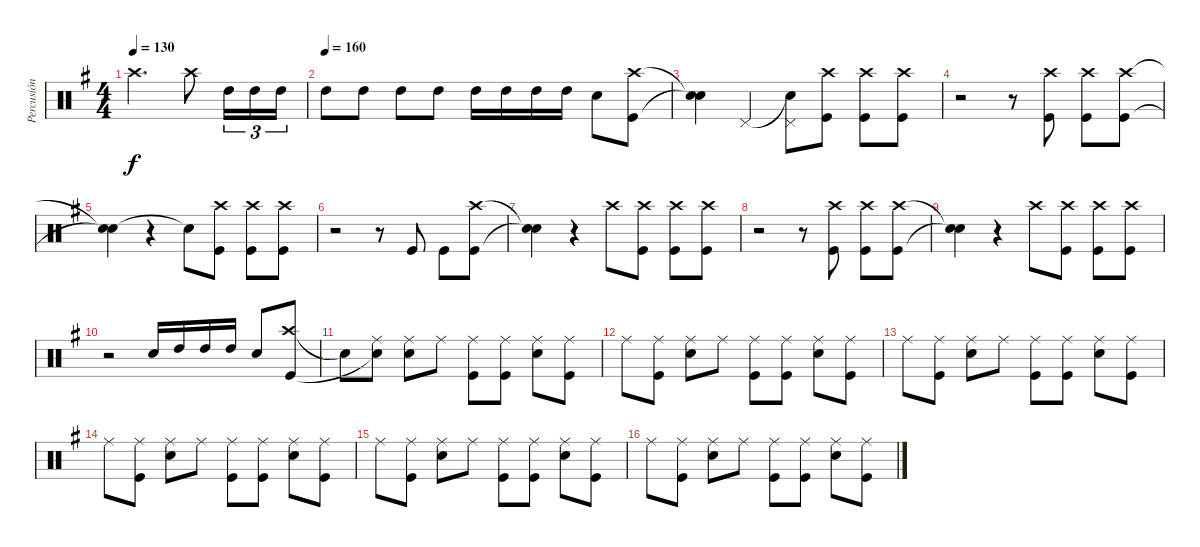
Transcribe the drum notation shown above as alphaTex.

\track ("Percusión" "Percusión") {instrument percussion}
\staff {score}
\articulation defaults
\ts (4 4)
\tempo 130
\clef neutral
\ks g "Crash high (hit)".2{d dy f} "Crash high (hit)".8 "High Tom (hit)".16{tu (3 2)} "High Tom (hit)".16{tu (3 2)} "High Tom (hit)".16{tu (3 2)}
|
\tempo (160)
"High Tom (hit)".8 "High Tom (hit)".8 "High Tom (hit)".8 "High Tom (hit)".8 "High Tom (hit)".16 "High Tom (hit)".16 "High Tom (hit)".16 "High Tom (hit)".16 "Snare (hit) 2".8 ("Crash high (hit)" "Kick (hit)").8 |
("Snare (hit)"{t} "Snare (hit)"{t}).4 "Pedal Hi-Hat (hit)".4 ("Snare (hit)"{t} "Pedal Hi-Hat (hit)").8 ("Crash high (hit)" "Kick (hit)").8 ("Crash high (hit)" "Kick (hit)").8 ("Crash high (hit)" "Kick (hit)").8 |
r.2 r.8 ("Crash high (hit)" "Kick (hit)").8 ("Crash high (hit)" "Kick (hit)").8 ("Crash high (hit)" "Kick (hit)").8 |
("Snare (hit)"{t} "Snare (hit)"{t}).4 r.4 "Snare (hit)"{t}.8 ("Crash high (hit)" "Kick (hit)").8 ("Crash high (hit)" "Kick (hit)").8 ("Crash high (hit)" "Kick (hit)").8 |
r.2 r.8 "Kick (hit)".8 "Kick (hit)".8 ("Crash high (hit)" "Kick (hit)").8 |
("Snare (hit)"{t} "Snare (hit)"{t}).4 r.4 "Crash high (hit)".8 ("Crash high (hit)" "Kick (hit)").8 ("Crash high (hit)" "Kick (hit)").8 ("Crash high (hit)" "Kick (hit)").8 |
r.2 r.8 ("Crash high (hit)" "Kick (hit)").8 ("Crash high (hit)" "Kick (hit)").8 ("Crash high (hit)" "Kick (hit)").8 |
("Snare (hit)"{t} "Snare (hit)"{t}).4 r.4 "Crash high (hit)".8 ("Crash high (hit)" "Kick (hit)").8 ("Crash high (hit)" "Kick (hit)").8 ("Crash high (hit)" "Kick (hit)").8 |
r.2 "Snare (hit) 2".16{beam Up} "High Tom (hit)".16{beam Up} "High Tom (hit)".16{beam Up} "High Tom (hit)".16{beam Up} "Snare (hit) 2".8{beam Up} ("Crash high (hit)" "Kick (hit)").8{beam Up} |
"Snare (hit)"{t}.8 ("Ride (middle)" "Snare (hit)"{t}).8 ("Ride (middle)" "Snare (hit) 2").8 "Ride (middle)".8 ("Ride (middle)" "Kick (hit)").8 ("Ride (middle)" "Kick (hit)").8 ("Ride (middle)" "Snare (hit) 2").8 ("Ride (middle)" "Kick (hit)").8 |
"Ride (middle)".8 ("Ride (middle)" "Kick (hit)").8 ("Ride (middle)" "Snare (hit) 2").8 "Ride (middle)".8 ("Ride (middle)" "Kick (hit)").8 ("Ride (middle)" "Kick (hit)").8 ("Ride (middle)" "Snare (hit) 2").8 ("Ride (middle)" "Kick (hit)").8 |
"Ride (middle)".8 ("Ride (middle)" "Kick (hit)").8 ("Ride (middle)" "Snare (hit) 2").8 "Ride (middle)".8 ("Ride (middle)" "Kick (hit)").8 ("Ride (middle)" "Kick (hit)").8 ("Ride (middle)" "Snare (hit) 2").8 ("Ride (middle)" "Kick (hit)").8 |
"Ride (middle)".8 ("Ride (middle)" "Kick (hit)").8 ("Ride (middle)" "Snare (hit) 2").8 "Ride (middle)".8 ("Ride (middle)" "Kick (hit)").8 ("Ride (middle)" "Kick (hit)").8 ("Ride (middle)" "Snare (hit) 2").8 ("Ride (middle)" "Kick (hit)").8 |
"Ride (middle)".8 ("Ride (middle)" "Kick (hit)").8 ("Ride (middle)" "Snare (hit) 2").8 "Ride (middle)".8 ("Ride (middle)" "Kick (hit)").8 ("Ride (middle)" "Kick (hit)").8 ("Ride (middle)" "Snare (hit) 2").8 ("Ride (middle)" "Kick (hit)").8 |
"Ride (middle)".8 ("Ride (middle)" "Kick (hit)").8 ("Ride (middle)" "Snare (hit) 2").8 "Ride (middle)".8 ("Ride (middle)" "Kick (hit)").8 ("Ride (middle)" "Kick (hit)").8 ("Ride (middle)" "Snare (hit) 2").8 ("Ride (middle)" "Kick (hit)").8
